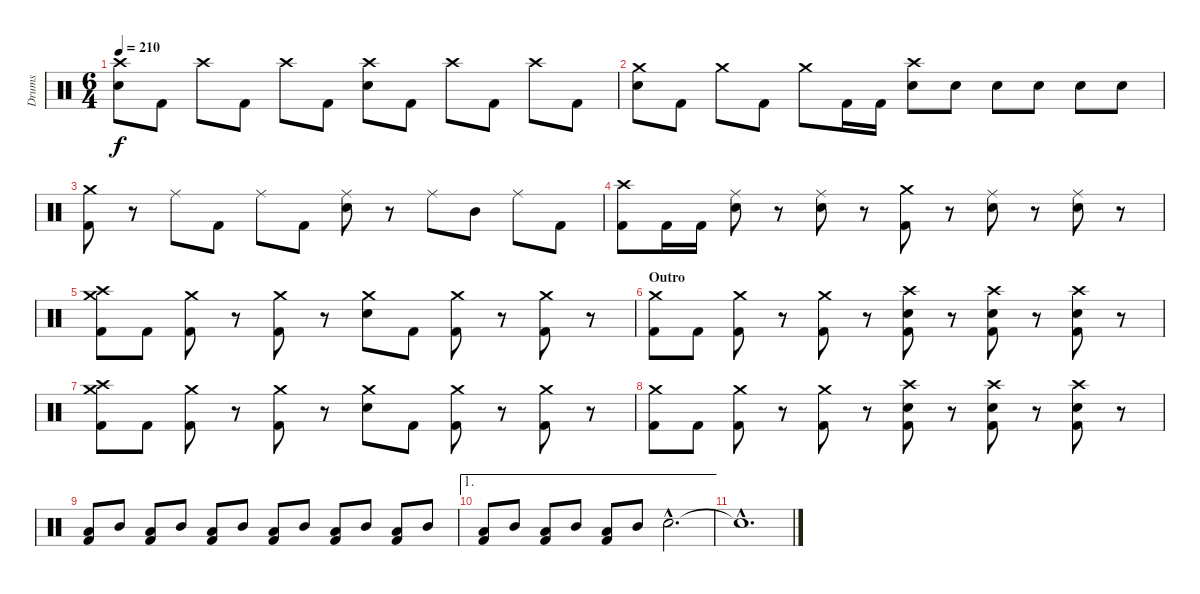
\track ("Drums" "Drums") {instrument percussion}
\staff {score}
\articulation defaults
\ts (6 4)
\tempo 210
\clef neutral
\ks c
("Crash high (hit)" "Electric Snare (hit)").8{dy f} "Kick (hit) 2".8 "Crash high (hit)".8 "Kick (hit) 2".8 "Crash high (hit)".8 "Kick (hit) 2".8 ("Crash high (hit)" "Electric Snare (hit)").8 "Kick (hit) 2".8 "Crash high (hit)".8 "Kick (hit) 2".8 "Crash high (hit)".8 "Kick (hit) 2".8 |
("Crash medium (hit)" "Electric Snare (hit)").8 "Kick (hit) 2".8 "Crash medium (hit)".8 "Kick (hit) 2".8 "Crash medium (hit)".8 "Kick (hit) 2".16 "Kick (hit) 2".16 ("Crash high (hit)" "Electric Snare (hit)").8 "Electric Snare (hit)".8 "Electric Snare (hit)".8 "Electric Snare (hit)".8 "Electric Snare (hit)".8 "Electric Snare (hit)".8 |
("Crash medium (hit)" "Kick (hit) 2").8 r.8 "Ride (middle)".8 "Kick (hit) 2".8 "Ride (middle)".8 "Kick (hit) 2".8 ("Ride (middle)" "Electric Snare (hit)").8 r.8 "Ride (middle)".8 "Mid Tom (hit)".8 "Ride (middle)".8 "Kick (hit) 2".8 |
("Crash high (hit)" "Kick (hit) 2").8 "Kick (hit) 2".16 "Kick (hit) 2".16 ("Ride (middle)" "Electric Snare (hit)").8 r.8 ("Ride (middle)" "Electric Snare (hit)").8 r.8 ("Crash medium (hit)" "Kick (hit) 2").8 r.8 ("Ride (middle)" "Electric Snare (hit)").8 r.8 ("Ride (middle)" "Electric Snare (hit)").8 r.8 |
("Crash medium (hit)" "Crash high (hit)" "Kick (hit) 2").8 "Kick (hit) 2".8 ("Crash medium (hit)" "Kick (hit) 2").8 r.8 ("Crash medium (hit)" "Kick (hit) 2").8 r.8 ("Crash medium (hit)" "Electric Snare (hit)").8 "Kick (hit) 2".8 ("Crash medium (hit)" "Kick (hit) 2").8 r.8 ("Crash medium (hit)" "Kick (hit) 2").8 r.8 |
\section ("" "Outro")
("Crash medium (hit)" "Kick (hit) 2").8 "Kick (hit) 2".8 ("Crash medium (hit)" "Kick (hit) 2").8 r.8 ("Crash medium (hit)" "Kick (hit) 2").8 r.8 ("Crash high (hit)" "Electric Snare (hit)" "Kick (hit) 2").8 r.8 ("Crash high (hit)" "Electric Snare (hit)" "Kick (hit) 2").8 r.8 ("Crash high (hit)" "Electric Snare (hit)" "Kick (hit) 2").8 r.8 |
("Crash medium (hit)" "Crash high (hit)" "Kick (hit) 2").8 "Kick (hit) 2".8 ("Crash medium (hit)" "Kick (hit) 2").8 r.8 ("Crash medium (hit)" "Kick (hit) 2").8 r.8 ("Crash medium (hit)" "Electric Snare (hit)").8 "Kick (hit) 2".8 ("Crash medium (hit)" "Kick (hit) 2").8 r.8 ("Crash medium (hit)" "Kick (hit) 2").8 r.8 |
("Crash medium (hit)" "Kick (hit) 2").8 "Kick (hit) 2".8 ("Crash medium (hit)" "Kick (hit) 2").8 r.8 ("Crash medium (hit)" "Kick (hit) 2").8 r.8 ("Crash high (hit)" "Electric Snare (hit)" "Kick (hit) 2").8 r.8 ("Crash high (hit)" "Electric Snare (hit)" "Kick (hit) 2").8 r.8 ("Crash high (hit)" "Electric Snare (hit)" "Kick (hit) 2").8 r.8 |
("Low Floor Tom (hit)" "Kick (hit) 2").8 "Mid Tom (hit)".8 ("Low Floor Tom (hit)" "Kick (hit) 2").8 "Mid Tom (hit)".8 ("Low Floor Tom (hit)" "Kick (hit) 2").8 "Mid Tom (hit)".8 ("Low Floor Tom (hit)" "Kick (hit) 2").8 "Mid Tom (hit)".8 ("Low Floor Tom (hit)" "Kick (hit) 2").8 "Mid Tom (hit)".8 ("Low Floor Tom (hit)" "Kick (hit) 2").8 "Mid Tom (hit)".8 |
\ae 1
("Low Floor Tom (hit)" "Kick (hit) 2").8 "Mid Tom (hit)".8 ("Low Floor Tom (hit)" "Kick (hit) 2").8 "Mid Tom (hit)".8 ("Low Floor Tom (hit)" "Kick (hit) 2").8 "Mid Tom (hit)".8 "Electric Snare (hit)"{hac}.2{d} |
"Snare (hit)"{hac t}.1{d}
